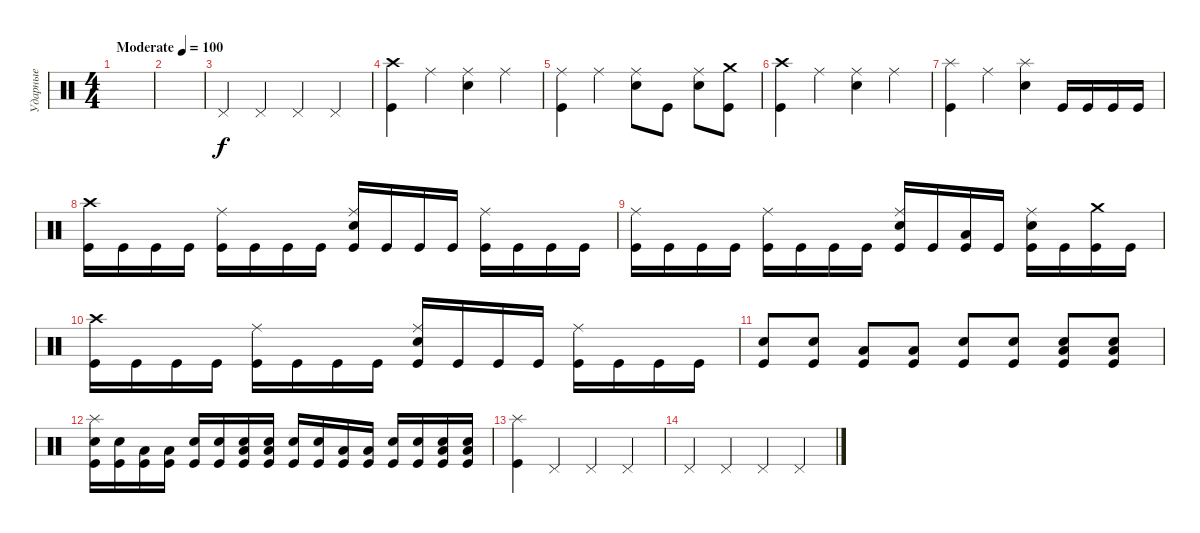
\track ("Ударные" "Ударные") {instrument percussion}
\staff {score}
\articulation defaults
\ts (4 4)
\tempo (100 "Moderate")
\clef neutral
\ks c
|
|
"Pedal Hi-Hat (hit)".4 "Pedal Hi-Hat (hit)".4 "Pedal Hi-Hat (hit)".4 "Pedal Hi-Hat (hit)".4 |
("Crash high (hit)" "Kick (hit)").4 "Ride (middle)".4 ("Ride (middle)" "Electric Snare (hit)").4 "Ride (middle)".4 |
("Ride (middle)" "Kick (hit)").4 "Ride (middle)".4 ("Ride (middle)" "Electric Snare (hit)").8 "Kick (hit)".8 ("Ride (middle)" "Electric Snare (hit)").8 ("Crash medium (hit)" "Kick (hit)").8 |
("Crash high (hit)" "Kick (hit)").4 "Ride (middle)".4 ("Ride (middle)" "Electric Snare (hit)").4 "Ride (middle)".4 |
("Splash (hit)" "Kick (hit)").4 "Ride (middle)".4 ("Splash (hit)" "Electric Snare (hit)").4 "Kick (hit)".16 "Kick (hit)".16 "Kick (hit)".16 "Kick (hit)".16 |
("Crash high (hit)" "Kick (hit)").16 "Kick (hit)".16 "Kick (hit)".16 "Kick (hit)".16 ("Ride (middle)" "Kick (hit)").16 "Kick (hit)".16 "Kick (hit)".16 "Kick (hit)".16 ("Ride (middle)" "Kick (hit)" "Electric Snare (hit)").16 "Kick (hit)".16 "Kick (hit)".16 "Kick (hit)".16 ("Ride (middle)" "Kick (hit)").16 "Kick (hit)".16 "Kick (hit)".16 "Kick (hit)".16 |
("Ride (middle)" "Kick (hit)").16 "Kick (hit)".16 "Kick (hit)".16 "Kick (hit)".16 ("Ride (middle)" "Kick (hit)").16 "Kick (hit)".16 "Kick (hit)".16 "Kick (hit)".16 ("Ride (middle)" "Kick (hit)" "Electric Snare (hit)").16 "Kick (hit)".16 ("Low Tom (hit)" "Kick (hit)").16 "Kick (hit)".16 ("Ride (middle)" "Kick (hit)" "Electric Snare (hit)").16 "Kick (hit)".16 ("Kick (hit)" "Crash medium (hit)").16 "Kick (hit)".16 |
("Crash high (hit)" "Kick (hit)").16 "Kick (hit)".16 "Kick (hit)".16 "Kick (hit)".16 ("Ride (middle)" "Kick (hit)").16 "Kick (hit)".16 "Kick (hit)".16 "Kick (hit)".16 ("Ride (middle)" "Kick (hit)" "Electric Snare (hit)").16 "Kick (hit)".16 "Kick (hit)".16 "Kick (hit)".16 ("Ride (middle)" "Kick (hit)").16 "Kick (hit)".16 "Kick (hit)".16 "Kick (hit)".16 |
("Electric Snare (hit)" "Kick (hit)").8 ("Electric Snare (hit)" "Kick (hit)").8 ("Low Floor Tom (hit)" "Kick (hit)").8 ("Low Floor Tom (hit)" "Kick (hit)").8 ("Electric Snare (hit)" "Kick (hit)").8 ("Electric Snare (hit)" "Kick (hit)").8 ("Electric Snare (hit)" "Low Floor Tom (hit)" "Kick (hit)").8 ("Electric Snare (hit)" "Low Floor Tom (hit)" "Kick (hit)").8 |
("Splash (hit)" "Electric Snare (hit)" "Kick (hit)").16 ("Electric Snare (hit)" "Kick (hit)").16 ("Low Floor Tom (hit)" "Kick (hit)").16 ("Low Floor Tom (hit)" "Kick (hit)").16 ("Electric Snare (hit)" "Kick (hit)").16 ("Electric Snare (hit)" "Kick (hit)").16 ("Electric Snare (hit)" "Low Floor Tom (hit)" "Kick (hit)").16 ("Electric Snare (hit)" "Low Floor Tom (hit)" "Kick (hit)").16 ("Electric Snare (hit)" "Kick (hit)").16 ("Electric Snare (hit)" "Kick (hit)").16 ("Low Floor Tom (hit)" "Kick (hit)").16 ("Low Floor Tom (hit)" "Kick (hit)").16 ("Electric Snare (hit)" "Kick (hit)").16 ("Electric Snare (hit)" "Kick (hit)").16 ("Electric Snare (hit)" "Low Floor Tom (hit)" "Kick (hit)").16 ("Electric Snare (hit)" "Low Floor Tom (hit)" "Kick (hit)").16 |
("Kick (hit)" "Splash (hit)").4 "Pedal Hi-Hat (hit)".4 "Pedal Hi-Hat (hit)".4 "Pedal Hi-Hat (hit)".4 |
"Pedal Hi-Hat (hit)".4 "Pedal Hi-Hat (hit)".4 "Pedal Hi-Hat (hit)".4 "Pedal Hi-Hat (hit)".4
